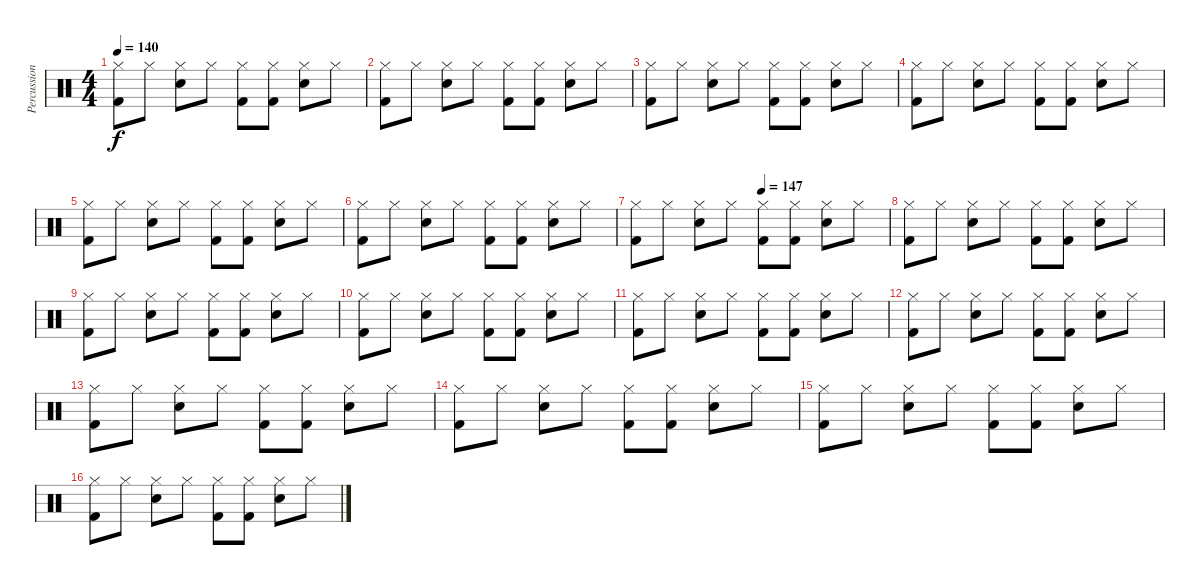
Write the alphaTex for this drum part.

\track ("Percussion" "Percussion") {instrument percussion}
\staff {score}
\articulation defaults
\ts (4 4)
\tempo 140
\clef neutral
\ks c
("Hi-Hat (closed)" "Kick (hit) 2").8{dy f} "Hi-Hat (closed)".8 ("Hi-Hat (closed)" "Snare (hit) 2").8 "Hi-Hat (closed)".8 ("Hi-Hat (closed)" "Kick (hit) 2").8 ("Hi-Hat (closed)" "Kick (hit) 2").8 ("Hi-Hat (closed)" "Snare (hit) 2").8 "Hi-Hat (closed)".8 |
("Hi-Hat (closed)" "Kick (hit) 2").8 "Hi-Hat (closed)".8 ("Hi-Hat (closed)" "Snare (hit) 2").8 "Hi-Hat (closed)".8 ("Hi-Hat (closed)" "Kick (hit) 2").8 ("Hi-Hat (closed)" "Kick (hit) 2").8 ("Hi-Hat (closed)" "Snare (hit) 2").8 "Hi-Hat (closed)".8 |
("Hi-Hat (closed)" "Kick (hit) 2").8 "Hi-Hat (closed)".8 ("Hi-Hat (closed)" "Snare (hit) 2").8 "Hi-Hat (closed)".8 ("Hi-Hat (closed)" "Kick (hit) 2").8 ("Hi-Hat (closed)" "Kick (hit) 2").8 ("Hi-Hat (closed)" "Snare (hit) 2").8 "Hi-Hat (closed)".8 |
("Hi-Hat (closed)" "Kick (hit) 2").8 "Hi-Hat (closed)".8 ("Hi-Hat (closed)" "Snare (hit) 2").8 "Hi-Hat (closed)".8 ("Hi-Hat (closed)" "Kick (hit) 2").8 ("Hi-Hat (closed)" "Kick (hit) 2").8 ("Hi-Hat (closed)" "Snare (hit) 2").8 "Hi-Hat (closed)".8 |
("Hi-Hat (closed)" "Kick (hit) 2").8 "Hi-Hat (closed)".8 ("Hi-Hat (closed)" "Snare (hit) 2").8 "Hi-Hat (closed)".8 ("Hi-Hat (closed)" "Kick (hit) 2").8 ("Hi-Hat (closed)" "Kick (hit) 2").8 ("Hi-Hat (closed)" "Snare (hit) 2").8 "Hi-Hat (closed)".8 |
("Hi-Hat (closed)" "Kick (hit) 2").8 "Hi-Hat (closed)".8 ("Hi-Hat (closed)" "Snare (hit) 2").8 "Hi-Hat (closed)".8 ("Hi-Hat (closed)" "Kick (hit) 2").8 ("Hi-Hat (closed)" "Kick (hit) 2").8 ("Hi-Hat (closed)" "Snare (hit) 2").8 "Hi-Hat (closed)".8 |
\tempo (147 0.5)
("Hi-Hat (closed)" "Kick (hit) 2").8 "Hi-Hat (closed)".8 ("Hi-Hat (closed)" "Snare (hit) 2").8 "Hi-Hat (closed)".8 ("Hi-Hat (closed)" "Kick (hit) 2").8 ("Hi-Hat (closed)" "Kick (hit) 2").8 ("Hi-Hat (closed)" "Snare (hit) 2").8 "Hi-Hat (closed)".8 |
("Hi-Hat (closed)" "Kick (hit) 2").8 "Hi-Hat (closed)".8 ("Hi-Hat (closed)" "Snare (hit) 2").8 "Hi-Hat (closed)".8 ("Hi-Hat (closed)" "Kick (hit) 2").8 ("Hi-Hat (closed)" "Kick (hit) 2").8 ("Hi-Hat (closed)" "Snare (hit) 2").8 "Hi-Hat (closed)".8 |
("Hi-Hat (closed)" "Kick (hit) 2").8 "Hi-Hat (closed)".8 ("Hi-Hat (closed)" "Snare (hit) 2").8 "Hi-Hat (closed)".8 ("Hi-Hat (closed)" "Kick (hit) 2").8 ("Hi-Hat (closed)" "Kick (hit) 2").8 ("Hi-Hat (closed)" "Snare (hit) 2").8 "Hi-Hat (closed)".8 |
("Hi-Hat (closed)" "Kick (hit) 2").8 "Hi-Hat (closed)".8 ("Hi-Hat (closed)" "Snare (hit) 2").8 "Hi-Hat (closed)".8 ("Hi-Hat (closed)" "Kick (hit) 2").8 ("Hi-Hat (closed)" "Kick (hit) 2").8 ("Hi-Hat (closed)" "Snare (hit) 2").8 "Hi-Hat (closed)".8 |
("Hi-Hat (closed)" "Kick (hit) 2").8 "Hi-Hat (closed)".8 ("Hi-Hat (closed)" "Snare (hit) 2").8 "Hi-Hat (closed)".8 ("Hi-Hat (closed)" "Kick (hit) 2").8 ("Hi-Hat (closed)" "Kick (hit) 2").8 ("Hi-Hat (closed)" "Snare (hit) 2").8 "Hi-Hat (closed)".8 |
("Hi-Hat (closed)" "Kick (hit) 2").8 "Hi-Hat (closed)".8 ("Hi-Hat (closed)" "Snare (hit) 2").8 "Hi-Hat (closed)".8 ("Hi-Hat (closed)" "Kick (hit) 2").8 ("Hi-Hat (closed)" "Kick (hit) 2").8 ("Hi-Hat (closed)" "Snare (hit) 2").8 "Hi-Hat (closed)".8 |
("Hi-Hat (closed)" "Kick (hit) 2").8 "Hi-Hat (closed)".8 ("Hi-Hat (closed)" "Snare (hit) 2").8 "Hi-Hat (closed)".8 ("Hi-Hat (closed)" "Kick (hit) 2").8 ("Hi-Hat (closed)" "Kick (hit) 2").8 ("Hi-Hat (closed)" "Snare (hit) 2").8 "Hi-Hat (closed)".8 |
("Hi-Hat (closed)" "Kick (hit) 2").8 "Hi-Hat (closed)".8 ("Hi-Hat (closed)" "Snare (hit) 2").8 "Hi-Hat (closed)".8 ("Hi-Hat (closed)" "Kick (hit) 2").8 ("Hi-Hat (closed)" "Kick (hit) 2").8 ("Hi-Hat (closed)" "Snare (hit) 2").8 "Hi-Hat (closed)".8 |
("Hi-Hat (closed)" "Kick (hit) 2").8 "Hi-Hat (closed)".8 ("Hi-Hat (closed)" "Snare (hit) 2").8 "Hi-Hat (closed)".8 ("Hi-Hat (closed)" "Kick (hit) 2").8 ("Hi-Hat (closed)" "Kick (hit) 2").8 ("Hi-Hat (closed)" "Snare (hit) 2").8 "Hi-Hat (closed)".8 |
("Hi-Hat (closed)" "Kick (hit) 2").8 "Hi-Hat (closed)".8 ("Hi-Hat (closed)" "Snare (hit) 2").8 "Hi-Hat (closed)".8 ("Hi-Hat (closed)" "Kick (hit) 2").8 ("Hi-Hat (closed)" "Kick (hit) 2").8 ("Hi-Hat (closed)" "Snare (hit) 2").8 "Hi-Hat (closed)".8
